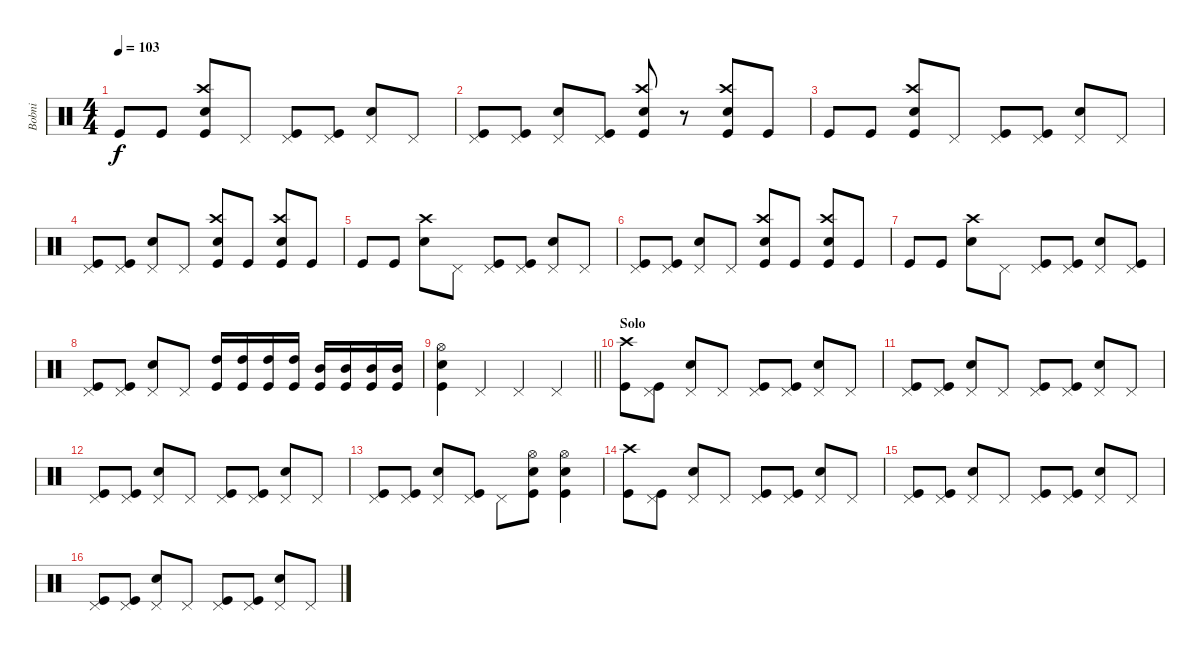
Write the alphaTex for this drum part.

\track ("Bobni" "Bobni") {instrument percussion}
\staff {score}
\articulation defaults
\ts (4 4)
\tempo 103
\clef neutral
\ks aminor "Kick (hit)".8{dy f} "Kick (hit)".8
("Crash high (hit)" "Snare (hit) 2" "Kick (hit)").8 "Pedal Hi-Hat (hit)".8 ("Pedal Hi-Hat (hit)" "Kick (hit)").8 ("Pedal Hi-Hat (hit)" "Kick (hit)").8 ("Pedal Hi-Hat (hit)" "Snare (hit) 2").8 "Pedal Hi-Hat (hit)".8 |
("Pedal Hi-Hat (hit)" "Kick (hit)").8 ("Pedal Hi-Hat (hit)" "Kick (hit)").8 ("Pedal Hi-Hat (hit)" "Snare (hit) 2").8 ("Pedal Hi-Hat (hit)" "Kick (hit)").8 ("Crash high (hit)" "Snare (hit) 2" "Kick (hit)").8 r.8 ("Crash high (hit)" "Snare (hit) 2" "Kick (hit)").8 "Kick (hit)".8 |
"Kick (hit)".8 "Kick (hit)".8 ("Crash high (hit)" "Snare (hit) 2" "Kick (hit)").8 "Pedal Hi-Hat (hit)".8 ("Pedal Hi-Hat (hit)" "Kick (hit)").8 ("Pedal Hi-Hat (hit)" "Kick (hit)").8 ("Pedal Hi-Hat (hit)" "Snare (hit) 2").8 "Pedal Hi-Hat (hit)".8 |
("Pedal Hi-Hat (hit)" "Kick (hit)").8 ("Pedal Hi-Hat (hit)" "Kick (hit)").8 ("Pedal Hi-Hat (hit)" "Snare (hit) 2").8 "Pedal Hi-Hat (hit)".8 ("Crash high (hit)" "Snare (hit) 2" "Kick (hit)").8 "Kick (hit)".8 ("Crash high (hit)" "Snare (hit) 2" "Kick (hit)").8 "Kick (hit)".8 |
"Kick (hit)".8 "Kick (hit)".8 ("Crash high (hit)" "Snare (hit) 2").8 "Pedal Hi-Hat (hit)".8 ("Pedal Hi-Hat (hit)" "Kick (hit)").8 ("Pedal Hi-Hat (hit)" "Kick (hit)").8 ("Pedal Hi-Hat (hit)" "Snare (hit) 2").8 "Pedal Hi-Hat (hit)".8 |
("Pedal Hi-Hat (hit)" "Kick (hit)").8 ("Pedal Hi-Hat (hit)" "Kick (hit)").8 ("Pedal Hi-Hat (hit)" "Snare (hit) 2").8 "Pedal Hi-Hat (hit)".8 ("Crash high (hit)" "Snare (hit) 2" "Kick (hit)").8 "Kick (hit)".8 ("Crash high (hit)" "Snare (hit) 2" "Kick (hit)").8 "Kick (hit)".8 |
"Kick (hit)".8 "Kick (hit)".8 ("Crash high (hit)" "Snare (hit) 2").8 "Pedal Hi-Hat (hit)".8 ("Pedal Hi-Hat (hit)" "Kick (hit)").8 ("Pedal Hi-Hat (hit)" "Kick (hit)").8 ("Pedal Hi-Hat (hit)" "Snare (hit) 2").8 ("Pedal Hi-Hat (hit)" "Kick (hit)").8 |
("Pedal Hi-Hat (hit)" "Kick (hit)").8 ("Pedal Hi-Hat (hit)" "Kick (hit)").8 ("Pedal Hi-Hat (hit)" "Snare (hit) 2").8 "Pedal Hi-Hat (hit)".8 ("High Tom (hit)" "Kick (hit)").16 ("High Tom (hit)" "Kick (hit)").16 ("High Tom (hit)" "Kick (hit)").16 ("High Tom (hit)" "Kick (hit)").16 ("Mid Tom (hit)" "Kick (hit)").16 ("Mid Tom (hit)" "Kick (hit)").16 ("Mid Tom (hit)" "Kick (hit)").16 ("Mid Tom (hit)" "Kick (hit)").16 |
\barLineRight lightlight
("Hi-Hat (open)" "Snare (hit) 2" "Kick (hit)").4 "Pedal Hi-Hat (hit)".4 "Pedal Hi-Hat (hit)".4 "Pedal Hi-Hat (hit)".4 |
\section ("" "Solo")
("Crash high (hit)" "Kick (hit)").8 ("Pedal Hi-Hat (hit)" "Kick (hit)").8 ("Pedal Hi-Hat (hit)" "Snare (hit) 2").8 "Pedal Hi-Hat (hit)".8 ("Pedal Hi-Hat (hit)" "Kick (hit)").8 ("Pedal Hi-Hat (hit)" "Kick (hit)").8 ("Pedal Hi-Hat (hit)" "Snare (hit) 2").8 "Pedal Hi-Hat (hit)".8 |
("Pedal Hi-Hat (hit)" "Kick (hit)").8 ("Pedal Hi-Hat (hit)" "Kick (hit)").8 ("Pedal Hi-Hat (hit)" "Snare (hit) 2").8 "Pedal Hi-Hat (hit)".8 ("Pedal Hi-Hat (hit)" "Kick (hit)").8 ("Pedal Hi-Hat (hit)" "Kick (hit)").8 ("Pedal Hi-Hat (hit)" "Snare (hit) 2").8 "Pedal Hi-Hat (hit)".8 |
("Pedal Hi-Hat (hit)" "Kick (hit)").8 ("Pedal Hi-Hat (hit)" "Kick (hit)").8 ("Pedal Hi-Hat (hit)" "Snare (hit) 2").8 "Pedal Hi-Hat (hit)".8 ("Pedal Hi-Hat (hit)" "Kick (hit)").8 ("Pedal Hi-Hat (hit)" "Kick (hit)").8 ("Pedal Hi-Hat (hit)" "Snare (hit) 2").8 "Pedal Hi-Hat (hit)".8 |
("Pedal Hi-Hat (hit)" "Kick (hit)").8 ("Pedal Hi-Hat (hit)" "Kick (hit)").8 ("Pedal Hi-Hat (hit)" "Snare (hit) 2").8 ("Pedal Hi-Hat (hit)" "Kick (hit)").8 "Pedal Hi-Hat (hit)".8 ("Hi-Hat (open)" "Snare (hit) 2" "Kick (hit)").8 ("Hi-Hat (open)" "Snare (hit) 2" "Kick (hit)").4 |
("Crash high (hit)" "Kick (hit)").8 ("Pedal Hi-Hat (hit)" "Kick (hit)").8 ("Pedal Hi-Hat (hit)" "Snare (hit) 2").8 "Pedal Hi-Hat (hit)".8 ("Pedal Hi-Hat (hit)" "Kick (hit)").8 ("Pedal Hi-Hat (hit)" "Kick (hit)").8 ("Pedal Hi-Hat (hit)" "Snare (hit) 2").8 "Pedal Hi-Hat (hit)".8 |
("Pedal Hi-Hat (hit)" "Kick (hit)").8 ("Pedal Hi-Hat (hit)" "Kick (hit)").8 ("Pedal Hi-Hat (hit)" "Snare (hit) 2").8 "Pedal Hi-Hat (hit)".8 ("Pedal Hi-Hat (hit)" "Kick (hit)").8 ("Pedal Hi-Hat (hit)" "Kick (hit)").8 ("Pedal Hi-Hat (hit)" "Snare (hit) 2").8 "Pedal Hi-Hat (hit)".8 |
("Pedal Hi-Hat (hit)" "Kick (hit)").8 ("Pedal Hi-Hat (hit)" "Kick (hit)").8 ("Pedal Hi-Hat (hit)" "Snare (hit) 2").8 "Pedal Hi-Hat (hit)".8 ("Pedal Hi-Hat (hit)" "Kick (hit)").8 ("Pedal Hi-Hat (hit)" "Kick (hit)").8 ("Pedal Hi-Hat (hit)" "Snare (hit) 2").8 "Pedal Hi-Hat (hit)".8
